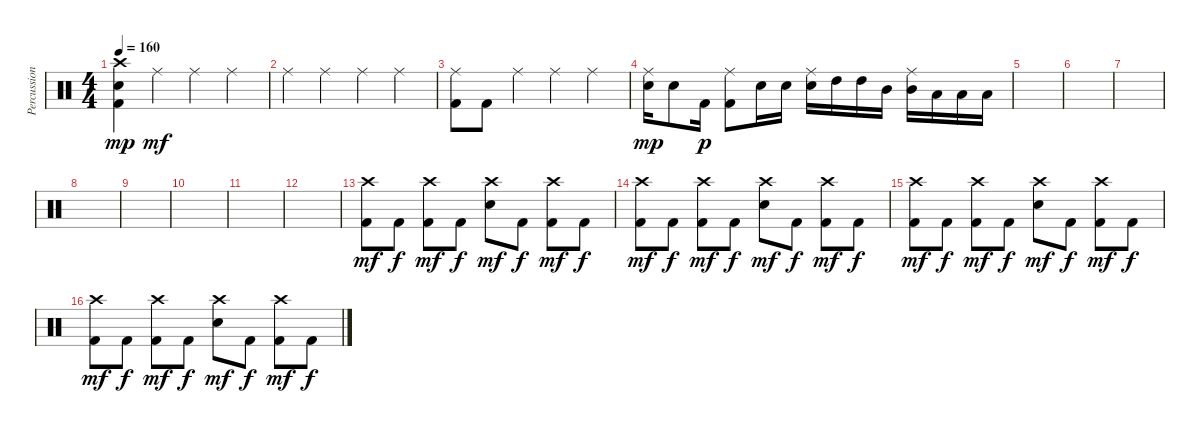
\track ("Percussion" "Percussion") {instrument percussion}
\staff {score}
\articulation defaults
\ts (4 4)
\tempo 160
\clef neutral
\ks c
("Crash high (hit)" "Electric Snare (hit)" "Kick (hit) 2").4{dy mp} "Ride (middle)".4{dy mf} "Ride (middle)".4 "Ride (middle)".4 |
"Ride (middle)".4 "Ride (middle)".4 "Ride (middle)".4 "Ride (middle)".4 |
("Ride (middle)" "Kick (hit) 2").8 "Kick (hit) 2".8 "Ride (middle)".4 "Ride (middle)".4 "Ride (middle)".4 |
("Ride (middle)" "Electric Snare (hit)").16{dy mp} "Electric Snare (hit)".8 "Kick (hit) 2".16{dy p} ("Ride (middle)" "Kick (hit) 2").8 "Electric Snare (hit)".16 "Electric Snare (hit)".16 ("Ride (middle)" "Electric Snare (hit)").16 "High Tom (hit)".16 "High Tom (hit)".16 "Mid Tom (hit)".16 ("Ride (middle)" "Mid Tom (hit)").16 "Low Tom (hit)".16 "Low Tom (hit)".16 "Low Tom (hit)".16 |
|
|
|
|
|
|
|
|
("Crash high (hit)" "Kick (hit) 2").8{dy mf} "Kick (hit) 2".8{dy f} ("Crash high (hit)" "Kick (hit) 2").8{dy mf} "Kick (hit) 2".8{dy f} ("Crash high (hit)" "Electric Snare (hit)").8{dy mf} "Kick (hit) 2".8{dy f} ("Crash high (hit)" "Kick (hit) 2").8{dy mf} "Kick (hit) 2".8{dy f} |
("Crash high (hit)" "Kick (hit) 2").8{dy mf} "Kick (hit) 2".8{dy f} ("Crash high (hit)" "Kick (hit) 2").8{dy mf} "Kick (hit) 2".8{dy f} ("Crash high (hit)" "Electric Snare (hit)").8{dy mf} "Kick (hit) 2".8{dy f} ("Crash high (hit)" "Kick (hit) 2").8{dy mf} "Kick (hit) 2".8{dy f} |
("Crash high (hit)" "Kick (hit) 2").8{dy mf} "Kick (hit) 2".8{dy f} ("Crash high (hit)" "Kick (hit) 2").8{dy mf} "Kick (hit) 2".8{dy f} ("Crash high (hit)" "Electric Snare (hit)").8{dy mf} "Kick (hit) 2".8{dy f} ("Crash high (hit)" "Kick (hit) 2").8{dy mf} "Kick (hit) 2".8{dy f} |
("Crash high (hit)" "Kick (hit) 2").8{dy mf} "Kick (hit) 2".8{dy f} ("Crash high (hit)" "Kick (hit) 2").8{dy mf} "Kick (hit) 2".8{dy f} ("Crash high (hit)" "Electric Snare (hit)").8{dy mf} "Kick (hit) 2".8{dy f} ("Crash high (hit)" "Kick (hit) 2").8{dy mf} "Kick (hit) 2".8{dy f}
